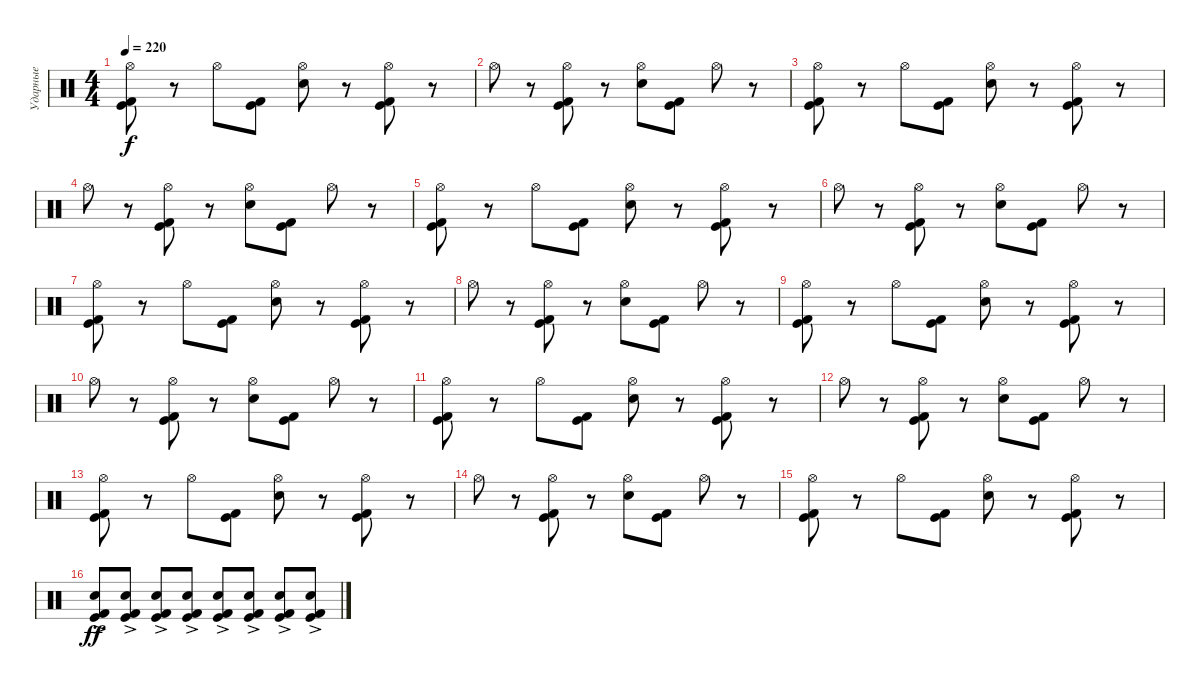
\track ("Ударные" "Ударные") {instrument percussion}
\staff {score}
\articulation defaults
\ts (4 4)
\tempo 220
\clef neutral
\ks c
("Hi-Hat (open)" "Kick (hit)" "Kick (hit) 2").8{dy f} r.8 "Hi-Hat (open)".8 ("Kick (hit)" "Kick (hit) 2").8 ("Hi-Hat (open)" "Electric Snare (hit)").8 r.8 ("Hi-Hat (open)" "Kick (hit)" "Kick (hit) 2").8 r.8 |
"Hi-Hat (open)".8 r.8 ("Hi-Hat (open)" "Kick (hit)" "Kick (hit) 2").8 r.8 ("Hi-Hat (open)" "Electric Snare (hit)").8 ("Kick (hit)" "Kick (hit) 2").8 "Hi-Hat (open)".8 r.8 |
("Hi-Hat (open)" "Kick (hit)" "Kick (hit) 2").8 r.8 "Hi-Hat (open)".8 ("Kick (hit)" "Kick (hit) 2").8 ("Hi-Hat (open)" "Electric Snare (hit)").8 r.8 ("Hi-Hat (open)" "Kick (hit)" "Kick (hit) 2").8 r.8 |
"Hi-Hat (open)".8 r.8 ("Hi-Hat (open)" "Kick (hit)" "Kick (hit) 2").8 r.8 ("Hi-Hat (open)" "Electric Snare (hit)").8 ("Kick (hit)" "Kick (hit) 2").8 "Hi-Hat (open)".8 r.8 |
("Hi-Hat (open)" "Kick (hit)" "Kick (hit) 2").8 r.8 "Hi-Hat (open)".8 ("Kick (hit)" "Kick (hit) 2").8 ("Hi-Hat (open)" "Electric Snare (hit)").8 r.8 ("Hi-Hat (open)" "Kick (hit)" "Kick (hit) 2").8 r.8 |
"Hi-Hat (open)".8 r.8 ("Hi-Hat (open)" "Kick (hit)" "Kick (hit) 2").8 r.8 ("Hi-Hat (open)" "Electric Snare (hit)").8 ("Kick (hit)" "Kick (hit) 2").8 "Hi-Hat (open)".8 r.8 |
("Hi-Hat (open)" "Kick (hit)" "Kick (hit) 2").8 r.8 "Hi-Hat (open)".8 ("Kick (hit)" "Kick (hit) 2").8 ("Hi-Hat (open)" "Electric Snare (hit)").8 r.8 ("Hi-Hat (open)" "Kick (hit)" "Kick (hit) 2").8 r.8 |
"Hi-Hat (open)".8 r.8 ("Hi-Hat (open)" "Kick (hit)" "Kick (hit) 2").8 r.8 ("Hi-Hat (open)" "Electric Snare (hit)").8 ("Kick (hit)" "Kick (hit) 2").8 "Hi-Hat (open)".8 r.8 |
("Hi-Hat (open)" "Kick (hit)" "Kick (hit) 2").8 r.8 "Hi-Hat (open)".8 ("Kick (hit)" "Kick (hit) 2").8 ("Hi-Hat (open)" "Electric Snare (hit)").8 r.8 ("Hi-Hat (open)" "Kick (hit)" "Kick (hit) 2").8 r.8 |
"Hi-Hat (open)".8 r.8 ("Hi-Hat (open)" "Kick (hit)" "Kick (hit) 2").8 r.8 ("Hi-Hat (open)" "Electric Snare (hit)").8 ("Kick (hit)" "Kick (hit) 2").8 "Hi-Hat (open)".8 r.8 |
("Hi-Hat (open)" "Kick (hit)" "Kick (hit) 2").8 r.8 "Hi-Hat (open)".8 ("Kick (hit)" "Kick (hit) 2").8 ("Hi-Hat (open)" "Electric Snare (hit)").8 r.8 ("Hi-Hat (open)" "Kick (hit)" "Kick (hit) 2").8 r.8 |
"Hi-Hat (open)".8 r.8 ("Hi-Hat (open)" "Kick (hit)" "Kick (hit) 2").8 r.8 ("Hi-Hat (open)" "Electric Snare (hit)").8 ("Kick (hit)" "Kick (hit) 2").8 "Hi-Hat (open)".8 r.8 |
("Hi-Hat (open)" "Kick (hit)" "Kick (hit) 2").8 r.8 "Hi-Hat (open)".8 ("Kick (hit)" "Kick (hit) 2").8 ("Hi-Hat (open)" "Electric Snare (hit)").8 r.8 ("Hi-Hat (open)" "Kick (hit)" "Kick (hit) 2").8 r.8 |
"Hi-Hat (open)".8 r.8 ("Hi-Hat (open)" "Kick (hit)" "Kick (hit) 2").8 r.8 ("Hi-Hat (open)" "Electric Snare (hit)").8 ("Kick (hit)" "Kick (hit) 2").8 "Hi-Hat (open)".8 r.8 |
("Hi-Hat (open)" "Kick (hit)" "Kick (hit) 2").8 r.8 "Hi-Hat (open)".8 ("Kick (hit)" "Kick (hit) 2").8 ("Hi-Hat (open)" "Electric Snare (hit)").8 r.8 ("Hi-Hat (open)" "Kick (hit)" "Kick (hit) 2").8 r.8 |
("Electric Snare (hit)"{ac} "Kick (hit)"{ac} "Kick (hit) 2").8{dy ff} ("Electric Snare (hit)"{ac} "Kick (hit)"{ac} "Kick (hit) 2").8 ("Electric Snare (hit)"{ac} "Kick (hit)"{ac} "Kick (hit) 2").8 ("Electric Snare (hit)"{ac} "Kick (hit)"{ac} "Kick (hit) 2").8 ("Electric Snare (hit)"{ac} "Kick (hit)"{ac} "Kick (hit) 2").8 ("Electric Snare (hit)"{ac} "Kick (hit)"{ac} "Kick (hit) 2").8 ("Electric Snare (hit)"{ac} "Kick (hit)"{ac} "Kick (hit) 2").8 ("Electric Snare (hit)"{ac} "Kick (hit)"{ac} "Kick (hit) 2").8
